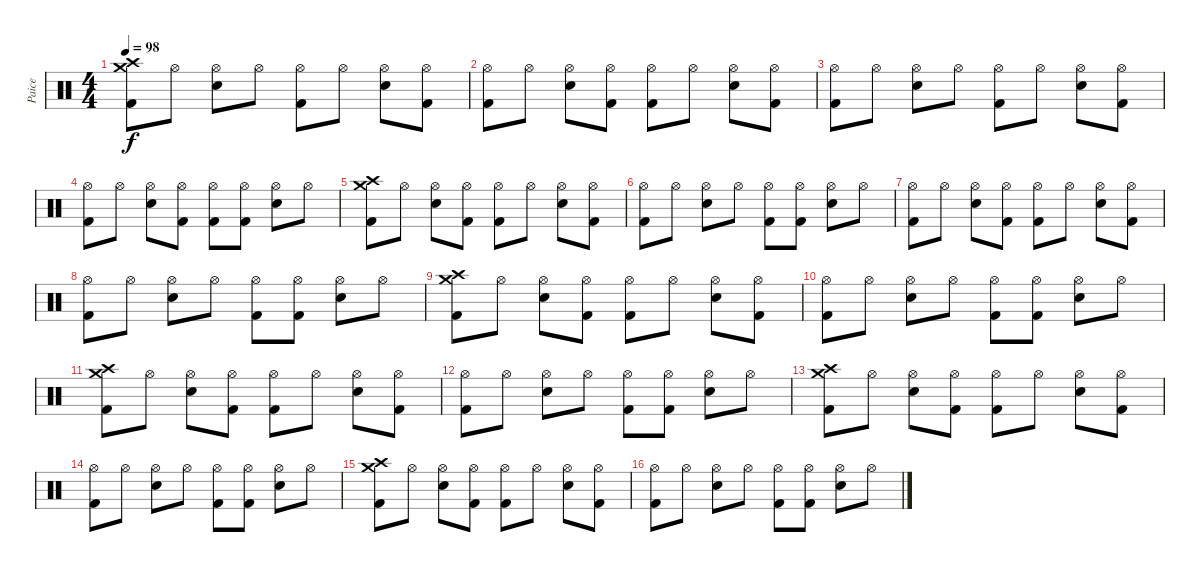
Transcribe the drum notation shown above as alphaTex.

\track ("Paice" "Paice") {instrument percussion}
\staff {score}
\articulation defaults
\ts (4 4)
\tempo 98
\clef neutral
\ks c
("Crash high (hit)" "Crash medium (hit)" "Kick (hit) 2").8{dy f} "Hi-Hat (open)".8 ("Hi-Hat (open)" "Electric Snare (hit)").8 "Hi-Hat (open)".8 ("Hi-Hat (open)" "Kick (hit) 2").8 "Hi-Hat (open)".8 ("Hi-Hat (open)" "Electric Snare (hit)").8 ("Hi-Hat (open)" "Kick (hit) 2").8 |
("Hi-Hat (open)" "Kick (hit) 2").8 "Hi-Hat (open)".8 ("Hi-Hat (open)" "Electric Snare (hit)").8 ("Hi-Hat (open)" "Kick (hit) 2").8 ("Hi-Hat (open)" "Kick (hit) 2").8 "Hi-Hat (open)".8 ("Hi-Hat (open)" "Electric Snare (hit)").8 ("Hi-Hat (open)" "Kick (hit) 2").8 |
("Hi-Hat (open)" "Kick (hit) 2").8 "Hi-Hat (open)".8 ("Hi-Hat (open)" "Electric Snare (hit)").8 "Hi-Hat (open)".8 ("Hi-Hat (open)" "Kick (hit) 2").8 "Hi-Hat (open)".8 ("Hi-Hat (open)" "Electric Snare (hit)").8 ("Hi-Hat (open)" "Kick (hit) 2").8 |
("Hi-Hat (open)" "Kick (hit) 2").8 "Hi-Hat (open)".8 ("Hi-Hat (open)" "Electric Snare (hit)").8 ("Hi-Hat (open)" "Kick (hit) 2").8 ("Hi-Hat (open)" "Kick (hit) 2").8 ("Hi-Hat (open)" "Kick (hit) 2").8 ("Hi-Hat (open)" "Electric Snare (hit)").8 "Hi-Hat (open)".8 |
("Crash high (hit)" "Crash medium (hit)" "Kick (hit) 2").8 "Hi-Hat (open)".8 ("Hi-Hat (open)" "Electric Snare (hit)").8 ("Hi-Hat (open)" "Kick (hit) 2").8 ("Hi-Hat (open)" "Kick (hit) 2").8 "Hi-Hat (open)".8 ("Hi-Hat (open)" "Electric Snare (hit)").8 ("Hi-Hat (open)" "Kick (hit) 2").8 |
("Hi-Hat (open)" "Kick (hit) 2").8 "Hi-Hat (open)".8 ("Hi-Hat (open)" "Electric Snare (hit)").8 "Hi-Hat (open)".8 ("Hi-Hat (open)" "Kick (hit) 2").8 ("Hi-Hat (open)" "Kick (hit) 2").8 ("Hi-Hat (open)" "Electric Snare (hit)").8 "Hi-Hat (open)".8 |
("Hi-Hat (open)" "Kick (hit) 2").8 "Hi-Hat (open)".8 ("Hi-Hat (open)" "Electric Snare (hit)").8 ("Hi-Hat (open)" "Kick (hit) 2").8 ("Hi-Hat (open)" "Kick (hit) 2").8 "Hi-Hat (open)".8 ("Hi-Hat (open)" "Electric Snare (hit)").8 ("Hi-Hat (open)" "Kick (hit) 2").8 |
("Hi-Hat (open)" "Kick (hit) 2").8 "Hi-Hat (open)".8 ("Hi-Hat (open)" "Electric Snare (hit)").8 "Hi-Hat (open)".8 ("Hi-Hat (open)" "Kick (hit) 2").8 ("Hi-Hat (open)" "Kick (hit) 2").8 ("Hi-Hat (open)" "Electric Snare (hit)").8 "Hi-Hat (open)".8 |
("Crash high (hit)" "Crash medium (hit)" "Kick (hit) 2").8 "Hi-Hat (open)".8 ("Hi-Hat (open)" "Electric Snare (hit)").8 ("Hi-Hat (open)" "Kick (hit) 2").8 ("Hi-Hat (open)" "Kick (hit) 2").8 "Hi-Hat (open)".8 ("Hi-Hat (open)" "Electric Snare (hit)").8 ("Hi-Hat (open)" "Kick (hit) 2").8 |
("Hi-Hat (open)" "Kick (hit) 2").8 "Hi-Hat (open)".8 ("Hi-Hat (open)" "Electric Snare (hit)").8 "Hi-Hat (open)".8 ("Hi-Hat (open)" "Kick (hit) 2").8 ("Hi-Hat (open)" "Kick (hit) 2").8 ("Hi-Hat (open)" "Electric Snare (hit)").8 "Hi-Hat (open)".8 |
("Crash high (hit)" "Crash medium (hit)" "Kick (hit) 2").8 "Hi-Hat (open)".8 ("Hi-Hat (open)" "Electric Snare (hit)").8 ("Hi-Hat (open)" "Kick (hit) 2").8 ("Hi-Hat (open)" "Kick (hit) 2").8 "Hi-Hat (open)".8 ("Hi-Hat (open)" "Electric Snare (hit)").8 ("Hi-Hat (open)" "Kick (hit) 2").8 |
("Hi-Hat (open)" "Kick (hit) 2").8 "Hi-Hat (open)".8 ("Hi-Hat (open)" "Electric Snare (hit)").8 "Hi-Hat (open)".8 ("Hi-Hat (open)" "Kick (hit) 2").8 ("Hi-Hat (open)" "Kick (hit) 2").8 ("Hi-Hat (open)" "Electric Snare (hit)").8 "Hi-Hat (open)".8 |
("Crash high (hit)" "Crash medium (hit)" "Kick (hit) 2").8 "Hi-Hat (open)".8 ("Hi-Hat (open)" "Electric Snare (hit)").8 ("Hi-Hat (open)" "Kick (hit) 2").8 ("Hi-Hat (open)" "Kick (hit) 2").8 "Hi-Hat (open)".8 ("Hi-Hat (open)" "Electric Snare (hit)").8 ("Hi-Hat (open)" "Kick (hit) 2").8 |
("Hi-Hat (open)" "Kick (hit) 2").8 "Hi-Hat (open)".8 ("Hi-Hat (open)" "Electric Snare (hit)").8 "Hi-Hat (open)".8 ("Hi-Hat (open)" "Kick (hit) 2").8 ("Hi-Hat (open)" "Kick (hit) 2").8 ("Hi-Hat (open)" "Electric Snare (hit)").8 "Hi-Hat (open)".8 |
("Crash high (hit)" "Crash medium (hit)" "Kick (hit) 2").8 "Hi-Hat (open)".8 ("Hi-Hat (open)" "Electric Snare (hit)").8 ("Hi-Hat (open)" "Kick (hit) 2").8 ("Hi-Hat (open)" "Kick (hit) 2").8 "Hi-Hat (open)".8 ("Hi-Hat (open)" "Electric Snare (hit)").8 ("Hi-Hat (open)" "Kick (hit) 2").8 |
("Hi-Hat (open)" "Kick (hit) 2").8 "Hi-Hat (open)".8 ("Hi-Hat (open)" "Electric Snare (hit)").8 "Hi-Hat (open)".8 ("Hi-Hat (open)" "Kick (hit) 2").8 ("Hi-Hat (open)" "Kick (hit) 2").8 ("Hi-Hat (open)" "Electric Snare (hit)").8 "Hi-Hat (open)".8
